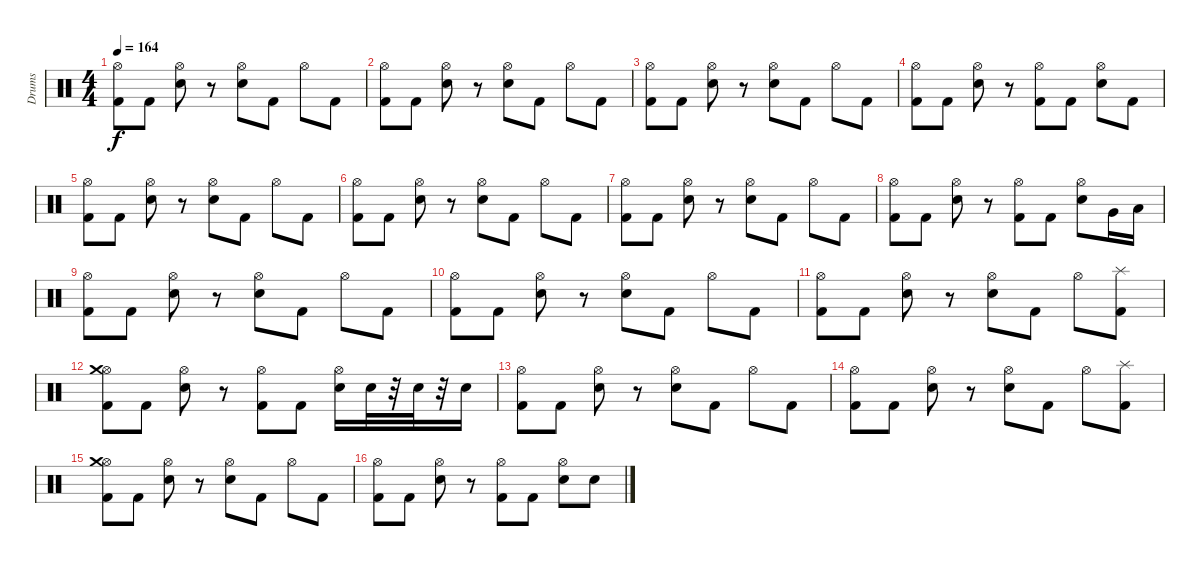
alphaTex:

\track ("Drums" "Drums") {instrument percussion}
\staff {score}
\articulation defaults
\ts (4 4)
\tempo 164
\clef neutral
\ks c
("Hi-Hat (open)" "Kick (hit) 2").8{dy f} "Kick (hit) 2".8 ("Hi-Hat (open)" "Electric Snare (hit)").8 r.8 ("Hi-Hat (open)" "Electric Snare (hit)").8 "Kick (hit) 2".8 "Hi-Hat (open)".8 "Kick (hit) 2".8 |
("Hi-Hat (open)" "Kick (hit) 2").8 "Kick (hit) 2".8 ("Hi-Hat (open)" "Electric Snare (hit)").8 r.8 ("Hi-Hat (open)" "Electric Snare (hit)").8 "Kick (hit) 2".8 "Hi-Hat (open)".8 "Kick (hit) 2".8 |
("Hi-Hat (open)" "Kick (hit) 2").8 "Kick (hit) 2".8 ("Hi-Hat (open)" "Electric Snare (hit)").8 r.8 ("Hi-Hat (open)" "Electric Snare (hit)").8 "Kick (hit) 2".8 "Hi-Hat (open)".8 "Kick (hit) 2".8 |
("Hi-Hat (open)" "Kick (hit) 2").8 "Kick (hit) 2".8 ("Hi-Hat (open)" "Electric Snare (hit)").8 r.8 ("Hi-Hat (open)" "Kick (hit) 2").8 "Kick (hit) 2".8 ("Hi-Hat (open)" "Electric Snare (hit)").8 "Kick (hit) 2".8 |
("Hi-Hat (open)" "Kick (hit) 2").8 "Kick (hit) 2".8 ("Hi-Hat (open)" "Electric Snare (hit)").8 r.8 ("Hi-Hat (open)" "Electric Snare (hit)").8 "Kick (hit) 2".8 "Hi-Hat (open)".8 "Kick (hit) 2".8 |
("Hi-Hat (open)" "Kick (hit) 2").8 "Kick (hit) 2".8 ("Hi-Hat (open)" "Electric Snare (hit)").8 r.8 ("Hi-Hat (open)" "Electric Snare (hit)").8 "Kick (hit) 2".8 "Hi-Hat (open)".8 "Kick (hit) 2".8 |
("Hi-Hat (open)" "Kick (hit) 2").8 "Kick (hit) 2".8 ("Hi-Hat (open)" "Electric Snare (hit)").8 r.8 ("Hi-Hat (open)" "Electric Snare (hit)").8 "Kick (hit) 2".8 "Hi-Hat (open)".8 "Kick (hit) 2".8 |
("Hi-Hat (open)" "Kick (hit) 2").8 "Kick (hit) 2".8 ("Hi-Hat (open)" "Electric Snare (hit)").8 r.8 ("Hi-Hat (open)" "Kick (hit) 2").8 "Kick (hit) 2".8 ("Hi-Hat (open)" "Electric Snare (hit)").8 "Very Low Tom (hit)".16 "Low Floor Tom (hit)".16 |
("Hi-Hat (open)" "Kick (hit) 2").8 "Kick (hit) 2".8 ("Hi-Hat (open)" "Electric Snare (hit)").8 r.8 ("Hi-Hat (open)" "Electric Snare (hit)").8 "Kick (hit) 2".8 "Hi-Hat (open)".8 "Kick (hit) 2".8 |
("Hi-Hat (open)" "Kick (hit) 2").8 "Kick (hit) 2".8 ("Hi-Hat (open)" "Electric Snare (hit)").8 r.8 ("Hi-Hat (open)" "Electric Snare (hit)").8 "Kick (hit) 2".8 "Hi-Hat (open)".8 "Kick (hit) 2".8 |
("Hi-Hat (open)" "Kick (hit) 2").8 "Kick (hit) 2".8 ("Hi-Hat (open)" "Electric Snare (hit)").8 r.8 ("Hi-Hat (open)" "Electric Snare (hit)").8 "Kick (hit) 2".8 "Hi-Hat (open)".8 ("Kick (hit) 2" "Splash (hit)").8 |
("Hi-Hat (open)" "Kick (hit) 2" "Crash medium (hit)").8 "Kick (hit) 2".8 ("Hi-Hat (open)" "Electric Snare (hit)").8 r.8 ("Hi-Hat (open)" "Kick (hit) 2").8 "Kick (hit) 2".8 ("Hi-Hat (open)" "Electric Snare (hit)").16 "Electric Snare (hit)".32 r.32 "Electric Snare (hit)".32 r.32 "Electric Snare (hit)".16 |
("Hi-Hat (open)" "Kick (hit) 2").8 "Kick (hit) 2".8 ("Hi-Hat (open)" "Electric Snare (hit)").8 r.8 ("Hi-Hat (open)" "Electric Snare (hit)").8 "Kick (hit) 2".8 "Hi-Hat (open)".8 "Kick (hit) 2".8 |
("Hi-Hat (open)" "Kick (hit) 2").8 "Kick (hit) 2".8 ("Hi-Hat (open)" "Electric Snare (hit)").8 r.8 ("Hi-Hat (open)" "Electric Snare (hit)").8 "Kick (hit) 2".8 "Hi-Hat (open)".8 ("Kick (hit) 2" "Splash (hit)").8 |
("Hi-Hat (open)" "Kick (hit) 2" "Crash medium (hit)").8 "Kick (hit) 2".8 ("Hi-Hat (open)" "Electric Snare (hit)").8 r.8 ("Hi-Hat (open)" "Electric Snare (hit)").8 "Kick (hit) 2".8 "Hi-Hat (open)".8 "Kick (hit) 2".8 |
("Hi-Hat (open)" "Kick (hit) 2").8 "Kick (hit) 2".8 ("Hi-Hat (open)" "Electric Snare (hit)").8 r.8 ("Hi-Hat (open)" "Kick (hit) 2").8 "Kick (hit) 2".8 ("Hi-Hat (open)" "Electric Snare (hit)").8 "Electric Snare (hit)".8
